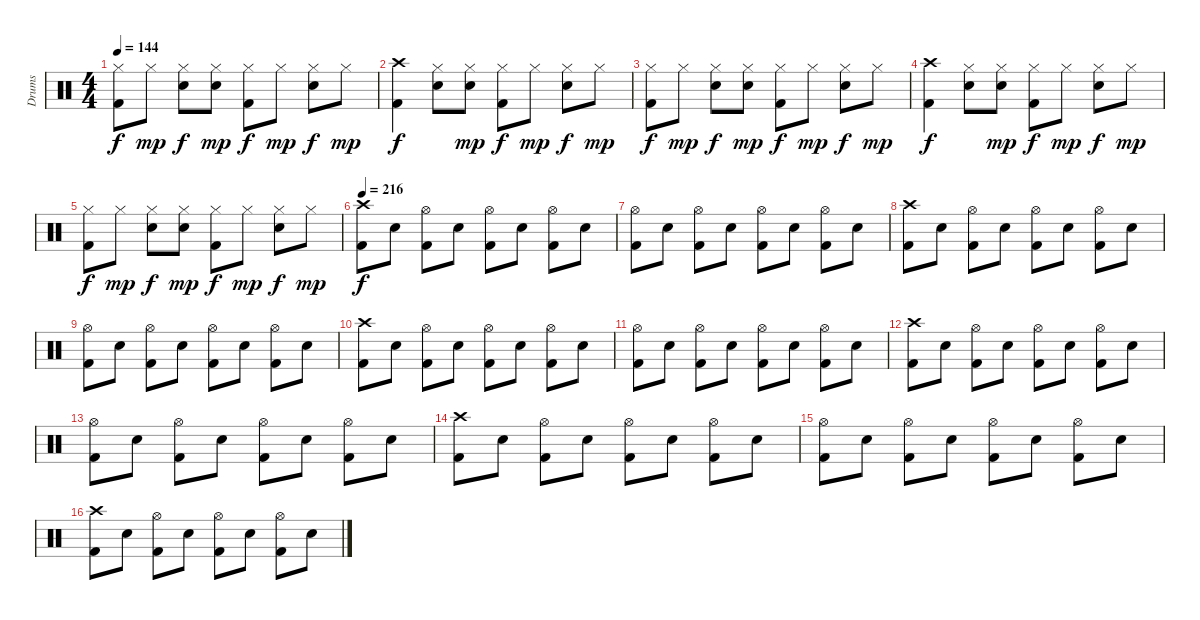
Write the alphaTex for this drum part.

\track ("Drums" "Drums") {instrument percussion}
\staff {score}
\articulation defaults
\ts (4 4)
\tempo 144
\clef neutral
\ks c
("Hi-Hat (closed)" "Kick (hit) 2").8{dy f} "Hi-Hat (closed)".8{dy mp} ("Hi-Hat (closed)" "Electric Snare (hit)").8{dy f} ("Hi-Hat (closed)" "Electric Snare (hit)").8{dy mp} ("Hi-Hat (closed)" "Kick (hit) 2").8{dy f} "Hi-Hat (closed)".8{dy mp} ("Hi-Hat (closed)" "Electric Snare (hit)").8{dy f} "Hi-Hat (closed)".8{dy mp} |
("Crash high (hit)" "Kick (hit) 2").4{dy f} ("Hi-Hat (closed)" "Electric Snare (hit)").8 ("Hi-Hat (closed)" "Electric Snare (hit)").8{dy mp} ("Hi-Hat (closed)" "Kick (hit) 2").8{dy f} "Hi-Hat (closed)".8{dy mp} ("Hi-Hat (closed)" "Electric Snare (hit)").8{dy f} "Hi-Hat (closed)".8{dy mp} |
("Hi-Hat (closed)" "Kick (hit) 2").8{dy f} "Hi-Hat (closed)".8{dy mp} ("Hi-Hat (closed)" "Electric Snare (hit)").8{dy f} ("Hi-Hat (closed)" "Electric Snare (hit)").8{dy mp} ("Hi-Hat (closed)" "Kick (hit) 2").8{dy f} "Hi-Hat (closed)".8{dy mp} ("Hi-Hat (closed)" "Electric Snare (hit)").8{dy f} "Hi-Hat (closed)".8{dy mp} |
("Crash high (hit)" "Kick (hit) 2").4{dy f} ("Hi-Hat (closed)" "Electric Snare (hit)").8 ("Hi-Hat (closed)" "Electric Snare (hit)").8{dy mp} ("Hi-Hat (closed)" "Kick (hit) 2").8{dy f} "Hi-Hat (closed)".8{dy mp} ("Hi-Hat (closed)" "Electric Snare (hit)").8{dy f} "Hi-Hat (closed)".8{dy mp} |
("Hi-Hat (closed)" "Kick (hit) 2").8{dy f} "Hi-Hat (closed)".8{dy mp} ("Hi-Hat (closed)" "Electric Snare (hit)").8{dy f} ("Hi-Hat (closed)" "Electric Snare (hit)").8{dy mp} ("Hi-Hat (closed)" "Kick (hit) 2").8{dy f} "Hi-Hat (closed)".8{dy mp} ("Hi-Hat (closed)" "Electric Snare (hit)").8{dy f} "Hi-Hat (closed)".8{dy mp} |
\tempo 216
("Crash high (hit)" "Kick (hit) 2").8{dy f} "Electric Snare (hit)".8 ("Hi-Hat (open)" "Kick (hit) 2").8 "Electric Snare (hit)".8 ("Hi-Hat (open)" "Kick (hit) 2").8 "Electric Snare (hit)".8 ("Hi-Hat (open)" "Kick (hit) 2").8 "Electric Snare (hit)".8 |
("Hi-Hat (open)" "Kick (hit) 2").8 "Electric Snare (hit)".8 ("Hi-Hat (open)" "Kick (hit) 2").8 "Electric Snare (hit)".8 ("Hi-Hat (open)" "Kick (hit) 2").8 "Electric Snare (hit)".8 ("Hi-Hat (open)" "Kick (hit) 2").8 "Electric Snare (hit)".8 |
("Crash high (hit)" "Kick (hit) 2").8 "Electric Snare (hit)".8 ("Hi-Hat (open)" "Kick (hit) 2").8 "Electric Snare (hit)".8 ("Hi-Hat (open)" "Kick (hit) 2").8 "Electric Snare (hit)".8 ("Hi-Hat (open)" "Kick (hit) 2").8 "Electric Snare (hit)".8 |
("Hi-Hat (open)" "Kick (hit) 2").8 "Electric Snare (hit)".8 ("Hi-Hat (open)" "Kick (hit) 2").8 "Electric Snare (hit)".8 ("Hi-Hat (open)" "Kick (hit) 2").8 "Electric Snare (hit)".8 ("Hi-Hat (open)" "Kick (hit) 2").8 "Electric Snare (hit)".8 |
("Crash high (hit)" "Kick (hit) 2").8 "Electric Snare (hit)".8 ("Hi-Hat (open)" "Kick (hit) 2").8 "Electric Snare (hit)".8 ("Hi-Hat (open)" "Kick (hit) 2").8 "Electric Snare (hit)".8 ("Hi-Hat (open)" "Kick (hit) 2").8 "Electric Snare (hit)".8 |
("Hi-Hat (open)" "Kick (hit) 2").8 "Electric Snare (hit)".8 ("Hi-Hat (open)" "Kick (hit) 2").8 "Electric Snare (hit)".8 ("Hi-Hat (open)" "Kick (hit) 2").8 "Electric Snare (hit)".8 ("Hi-Hat (open)" "Kick (hit) 2").8 "Electric Snare (hit)".8 |
("Crash high (hit)" "Kick (hit) 2").8 "Electric Snare (hit)".8 ("Hi-Hat (open)" "Kick (hit) 2").8 "Electric Snare (hit)".8 ("Hi-Hat (open)" "Kick (hit) 2").8 "Electric Snare (hit)".8 ("Hi-Hat (open)" "Kick (hit) 2").8 "Electric Snare (hit)".8 |
("Hi-Hat (open)" "Kick (hit) 2").8 "Electric Snare (hit)".8 ("Hi-Hat (open)" "Kick (hit) 2").8 "Electric Snare (hit)".8 ("Hi-Hat (open)" "Kick (hit) 2").8 "Electric Snare (hit)".8 ("Hi-Hat (open)" "Kick (hit) 2").8 "Electric Snare (hit)".8 |
("Crash high (hit)" "Kick (hit) 2").8 "Electric Snare (hit)".8 ("Hi-Hat (open)" "Kick (hit) 2").8 "Electric Snare (hit)".8 ("Hi-Hat (open)" "Kick (hit) 2").8 "Electric Snare (hit)".8 ("Hi-Hat (open)" "Kick (hit) 2").8 "Electric Snare (hit)".8 |
("Hi-Hat (open)" "Kick (hit) 2").8 "Electric Snare (hit)".8 ("Hi-Hat (open)" "Kick (hit) 2").8 "Electric Snare (hit)".8 ("Hi-Hat (open)" "Kick (hit) 2").8 "Electric Snare (hit)".8 ("Hi-Hat (open)" "Kick (hit) 2").8 "Electric Snare (hit)".8 |
("Crash high (hit)" "Kick (hit) 2").8 "Electric Snare (hit)".8 ("Hi-Hat (open)" "Kick (hit) 2").8 "Electric Snare (hit)".8 ("Hi-Hat (open)" "Kick (hit) 2").8 "Electric Snare (hit)".8 ("Hi-Hat (open)" "Kick (hit) 2").8 "Electric Snare (hit)".8
